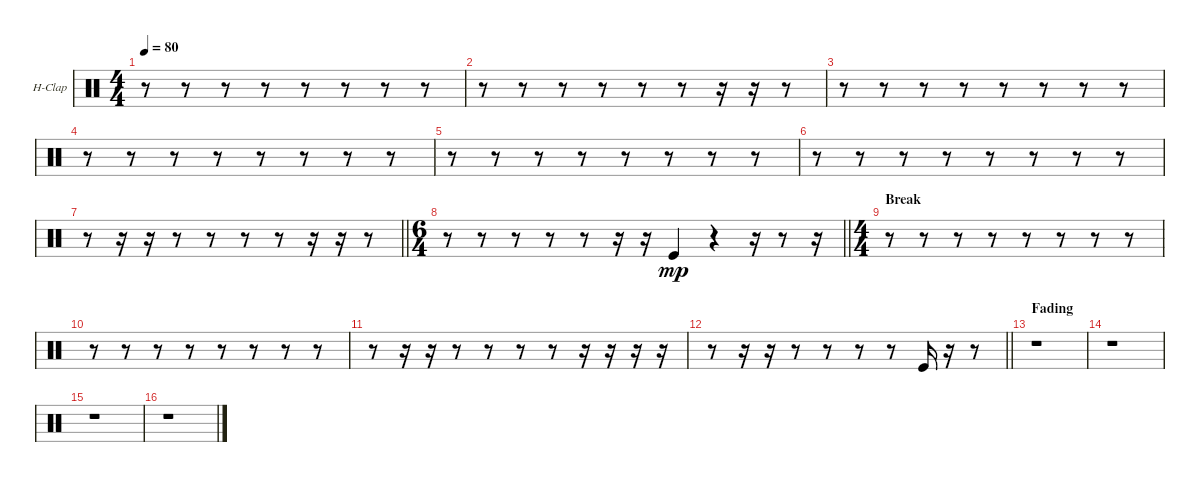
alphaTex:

\bracketExtendMode groupsimilarinstruments
\firstSystemTrackNameOrientation horizontal
\otherSystemsTrackNameOrientation horizontal
\track ("Hand Clap" "H-Clap") {instrument percussion}
\staff {score}
\articulation defaults
\ts (4 4)
\tempo 80
\clef neutral
\ks c
r.8{dy mf} r.8 r.8 r.8 r.8 r.8 r.8 r.8 |
r.8 r.8 r.8 r.8 r.8 r.8 r.16 r.16 r.8 |
r.8 r.8 r.8 r.8 r.8 r.8 r.8 r.8 |
r.8 r.8 r.8 r.8 r.8 r.8 r.8 r.8 |
r.8 r.8 r.8 r.8 r.8 r.8 r.8 r.8 |
r.8 r.8 r.8 r.8 r.8 r.8 r.8 r.8 |
\barLineRight lightlight
r.8 r.16 r.16 r.8 r.8 r.8 r.8 r.16 r.16 r.8 |
\ts (6 4)
\beaming (8 6 6)
\barLineRight lightlight
r.8 r.8 r.8 r.8 r.8 r.16 r.16 "Kick (hit)".4{dy mp} r.4 r.16 r.8 r.16 |
\ts (4 4)
\beaming (8 2 2 2 2)
\section ("" "Break")
r.8 r.8 r.8 r.8 r.8 r.8 r.8 r.8 |
r.8 r.8 r.8 r.8 r.8 r.8 r.8 r.8 |
r.8 r.16 r.16 r.8 r.8 r.8 r.8 r.16 r.16 r.16 r.16 |
\barLineRight lightlight
r.8 r.16 r.16 r.8 r.8 r.8 r.8 "Kick (hit)".16 r.16 r.8 |
\section ("" "Fading")
r.1 |
r.1 |
r.1 |
r.1
